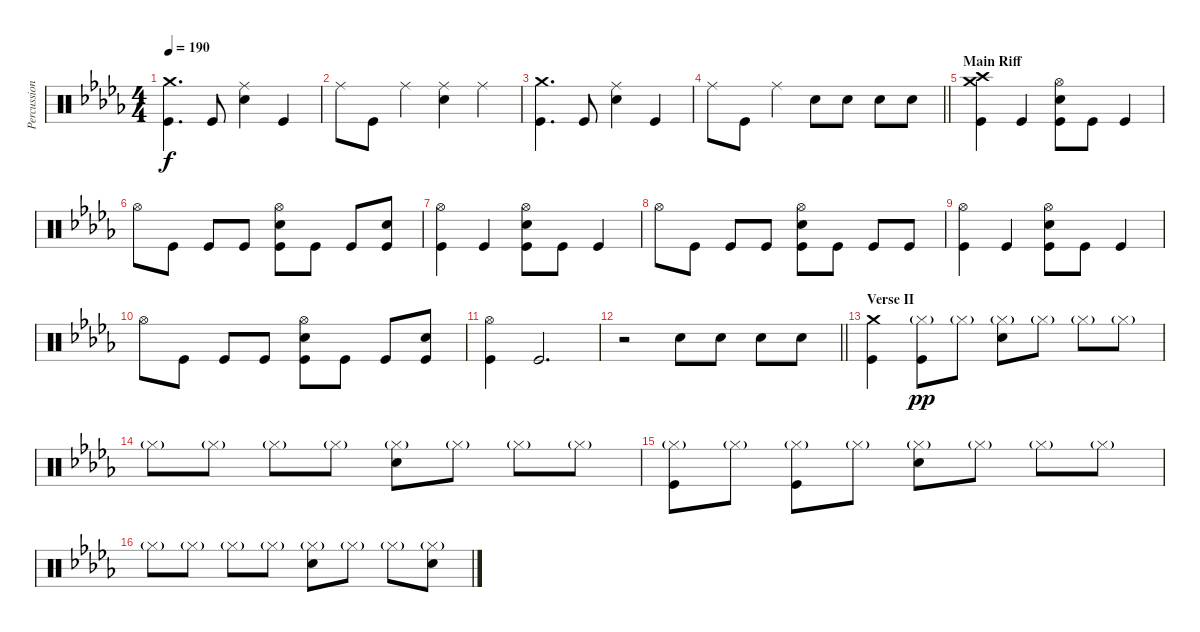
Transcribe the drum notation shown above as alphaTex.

\track ("Percussion" "Percussion") {instrument percussion}
\staff {score}
\articulation defaults
\ts (4 4)
\tempo 190
\clef neutral
\ks db
("Crash medium (hit)" "Kick (hit)").4{d dy f} "Kick (hit)".8 ("Ride (middle)" "Electric Snare (hit)").4 "Kick (hit)".4 |
"Ride (middle)".8 "Kick (hit)".8 "Ride (middle)".4 ("Ride (middle)" "Electric Snare (hit)").4 "Ride (middle)".4 |
("Crash medium (hit)" "Kick (hit)").4{d} "Kick (hit)".8 ("Ride (middle)" "Electric Snare (hit)").4 "Kick (hit)".4 |
\barLineRight lightlight "Ride (middle)".8 "Kick (hit)".8 "Ride (middle)".4 "Electric Snare (hit)".8 "Electric Snare (hit)".8 "Electric Snare (hit)".8 "Electric Snare (hit)".8
|
\section ("" "Main Riff")
("Crash high (hit)" "Crash medium (hit)" "Kick (hit)").4 "Kick (hit)".4 ("Hi-Hat (open)" "Electric Snare (hit)" "Kick (hit)").8 "Kick (hit)".8 "Kick (hit)".4 |
"Hi-Hat (open)".8 "Kick (hit)".8 "Kick (hit)".8 "Kick (hit)".8 ("Hi-Hat (open)" "Electric Snare (hit)" "Kick (hit)").8 "Kick (hit)".8 "Kick (hit)".8 ("Electric Snare (hit)" "Kick (hit)").8 |
("Hi-Hat (open)" "Kick (hit)").4 "Kick (hit)".4 ("Hi-Hat (open)" "Electric Snare (hit)" "Kick (hit)").8 "Kick (hit)".8 "Kick (hit)".4 |
"Hi-Hat (open)".8 "Kick (hit)".8 "Kick (hit)".8 "Kick (hit)".8 ("Hi-Hat (open)" "Electric Snare (hit)" "Kick (hit)").8 "Kick (hit)".8 "Kick (hit)".8 "Kick (hit)".8 |
("Hi-Hat (open)" "Kick (hit)").4 "Kick (hit)".4 ("Hi-Hat (open)" "Electric Snare (hit)" "Kick (hit)").8 "Kick (hit)".8 "Kick (hit)".4 |
"Hi-Hat (open)".8 "Kick (hit)".8 "Kick (hit)".8 "Kick (hit)".8 ("Hi-Hat (open)" "Electric Snare (hit)" "Kick (hit)").8 "Kick (hit)".8 "Kick (hit)".8 ("Electric Snare (hit)" "Kick (hit)").8 |
("Hi-Hat (open)" "Kick (hit)").4 "Kick (hit)".2{d} |
\barLineRight lightlight
r.2 "Electric Snare (hit)".8 "Electric Snare (hit)".8 "Electric Snare (hit)".8 "Electric Snare (hit)".8 |
\section ("" "Verse II")
("Crash medium (hit)" "Kick (hit)").4 ("Hi-Hat (closed)"{g} "Kick (hit)").8{dy pp} "Hi-Hat (closed)"{g}.8 ("Hi-Hat (closed)"{g} "Electric Snare (hit)").8 "Hi-Hat (closed)"{g}.8 "Hi-Hat (closed)"{g}.8 "Hi-Hat (closed)"{g}.8 |
"Hi-Hat (closed)"{g}.8 "Hi-Hat (closed)"{g}.8 "Hi-Hat (closed)"{g}.8 "Hi-Hat (closed)"{g}.8 ("Hi-Hat (closed)"{g} "Electric Snare (hit)").8 "Hi-Hat (closed)"{g}.8 "Hi-Hat (closed)"{g}.8 "Hi-Hat (closed)"{g}.8 |
("Hi-Hat (closed)"{g} "Kick (hit)").8 "Hi-Hat (closed)"{g}.8 ("Hi-Hat (closed)"{g} "Kick (hit)").8 "Hi-Hat (closed)"{g}.8 ("Hi-Hat (closed)"{g} "Electric Snare (hit)").8 "Hi-Hat (closed)"{g}.8 "Hi-Hat (closed)"{g}.8 "Hi-Hat (closed)"{g}.8 |
"Hi-Hat (closed)"{g}.8 "Hi-Hat (closed)"{g}.8 "Hi-Hat (closed)"{g}.8 "Hi-Hat (closed)"{g}.8 ("Hi-Hat (closed)"{g} "Electric Snare (hit)").8 "Hi-Hat (closed)"{g}.8 "Hi-Hat (closed)"{g}.8 ("Hi-Hat (closed)"{g} "Electric Snare (hit)").8
